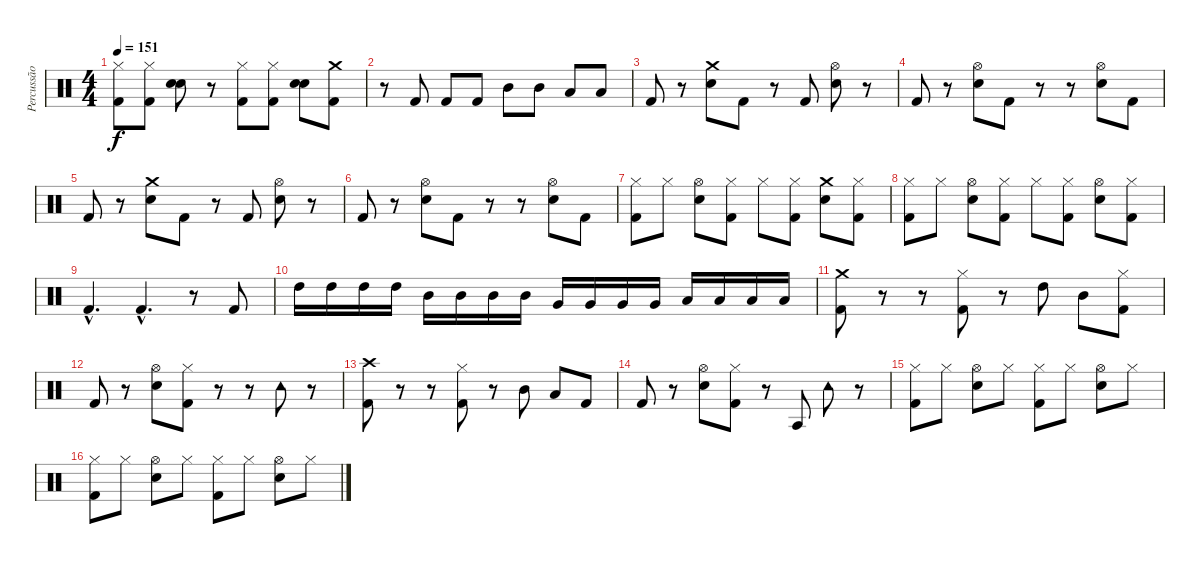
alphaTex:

\track ("Percussão" "Percussão") {instrument percussion}
\staff {score}
\articulation defaults
\ts (4 4)
\tempo 151
\clef neutral
\ks c
("Kick (hit) 2" "Hi-Hat (closed)").8{dy f} ("Kick (hit) 2" "Hi-Hat (closed)").8 ("Snare (hit) 2" "Hand Clap (hit)").8 r.8 ("Kick (hit) 2" "Hi-Hat (closed)").8 ("Kick (hit) 2" "Hi-Hat (closed)").8 ("Snare (hit) 2" "Hand Clap (hit)").8 ("Kick (hit) 2" "Crash medium (hit)").8 |
r.8 "Kick (hit) 2".8 "Kick (hit) 2".8 "Kick (hit) 2".8 "Mid Tom (hit)".8 "Mid Tom (hit)".8 "Low Tom (hit)".8 "Low Tom (hit)".8 |
"Kick (hit) 2".8 r.8 ("Snare (hit) 2" "Crash medium (hit)").8 "Kick (hit) 2".8 r.8 "Kick (hit) 2".8 ("Snare (hit) 2" "Hi-Hat (open)").8 r.8 |
"Kick (hit) 2".8 r.8 ("Snare (hit) 2" "Hi-Hat (open)").8 "Kick (hit) 2".8 r.8 r.8 ("Snare (hit) 2" "Hi-Hat (open)").8 "Kick (hit) 2".8 |
"Kick (hit) 2".8 r.8 ("Snare (hit) 2" "Crash medium (hit)").8 "Kick (hit) 2".8 r.8 "Kick (hit) 2".8 ("Snare (hit) 2" "Hi-Hat (open)").8 r.8 |
"Kick (hit) 2".8 r.8 ("Snare (hit) 2" "Hi-Hat (open)").8 "Kick (hit) 2".8 r.8 r.8 ("Snare (hit) 2" "Hi-Hat (open)").8 "Kick (hit) 2".8 |
("Kick (hit) 2" "Hi-Hat (closed)").8 "Hi-Hat (closed)".8 ("Snare (hit) 2" "Hi-Hat (open)").8 ("Kick (hit) 2" "Hi-Hat (closed)").8 "Hi-Hat (closed)".8 ("Kick (hit) 2" "Hi-Hat (closed)").8 ("Snare (hit) 2" "Crash medium (hit)").8 ("Kick (hit) 2" "Hi-Hat (closed)").8 |
("Kick (hit) 2" "Hi-Hat (closed)").8 "Hi-Hat (closed)".8 ("Snare (hit) 2" "Hi-Hat (open)").8 ("Kick (hit) 2" "Hi-Hat (closed)").8 "Hi-Hat (closed)".8 ("Kick (hit) 2" "Hi-Hat (closed)").8 ("Snare (hit) 2" "Hi-Hat (open)").8 ("Kick (hit) 2" "Hi-Hat (closed)").8 |
"Kick (hit) 2"{hac}.4{d} "Kick (hit) 2"{hac}.4{d} r.8 "Kick (hit) 2".8 |
"High Tom (hit)".16 "High Tom (hit)".16 "High Tom (hit)".16 "High Tom (hit)".16 "Mid Tom (hit)".16 "Mid Tom (hit)".16 "Mid Tom (hit)".16 "Mid Tom (hit)".16 "Very Low Tom (hit)".16 "Very Low Tom (hit)".16 "Very Low Tom (hit)".16 "Very Low Tom (hit)".16 "Low Floor Tom (hit)".16 "Low Floor Tom (hit)".16 "Low Floor Tom (hit)".16 "Low Floor Tom (hit)".16 |
("Kick (hit) 2" "Crash medium (hit)").8 r.8 r.8 ("Kick (hit) 2" "Hi-Hat (closed)").8 r.8 "High Tom (hit)".8 "Mid Tom (hit)".8 ("Kick (hit) 2" "Hi-Hat (closed)").8 |
"Kick (hit) 2".8 r.8 ("Snare (hit) 2" "Hi-Hat (open)").8 ("Kick (hit) 2" "Hi-Hat (closed)").8 r.8 r.8 "Tambourine (hit)".8 r.8 |
("Kick (hit) 2" "Crash high (hit)").8 r.8 r.8 ("Kick (hit) 2" "Hi-Hat (closed)").8 r.8 "Mid Tom (hit)".8 "Low Tom (hit)".8 "Kick (hit) 2".8 |
"Kick (hit) 2".8 r.8 ("Snare (hit) 2" "Hi-Hat (open)").8 ("Kick (hit) 2" "Hi-Hat (closed)").8 r.8 "Agogo tow (hit)".8 "Tambourine (hit)".8 r.8 |
("Kick (hit) 2" "Hi-Hat (closed)").8 "Hi-Hat (closed)".8 ("Snare (hit) 2" "Hi-Hat (open)").8 "Hi-Hat (closed)".8 ("Kick (hit) 2" "Hi-Hat (closed)").8 "Hi-Hat (closed)".8 ("Snare (hit) 2" "Hi-Hat (open)").8 "Hi-Hat (closed)".8 |
("Kick (hit) 2" "Hi-Hat (closed)").8 "Hi-Hat (closed)".8 ("Snare (hit) 2" "Hi-Hat (open)").8 "Hi-Hat (closed)".8 ("Kick (hit) 2" "Hi-Hat (closed)").8 "Hi-Hat (closed)".8 ("Snare (hit) 2" "Hi-Hat (open)").8 "Hi-Hat (closed)".8
